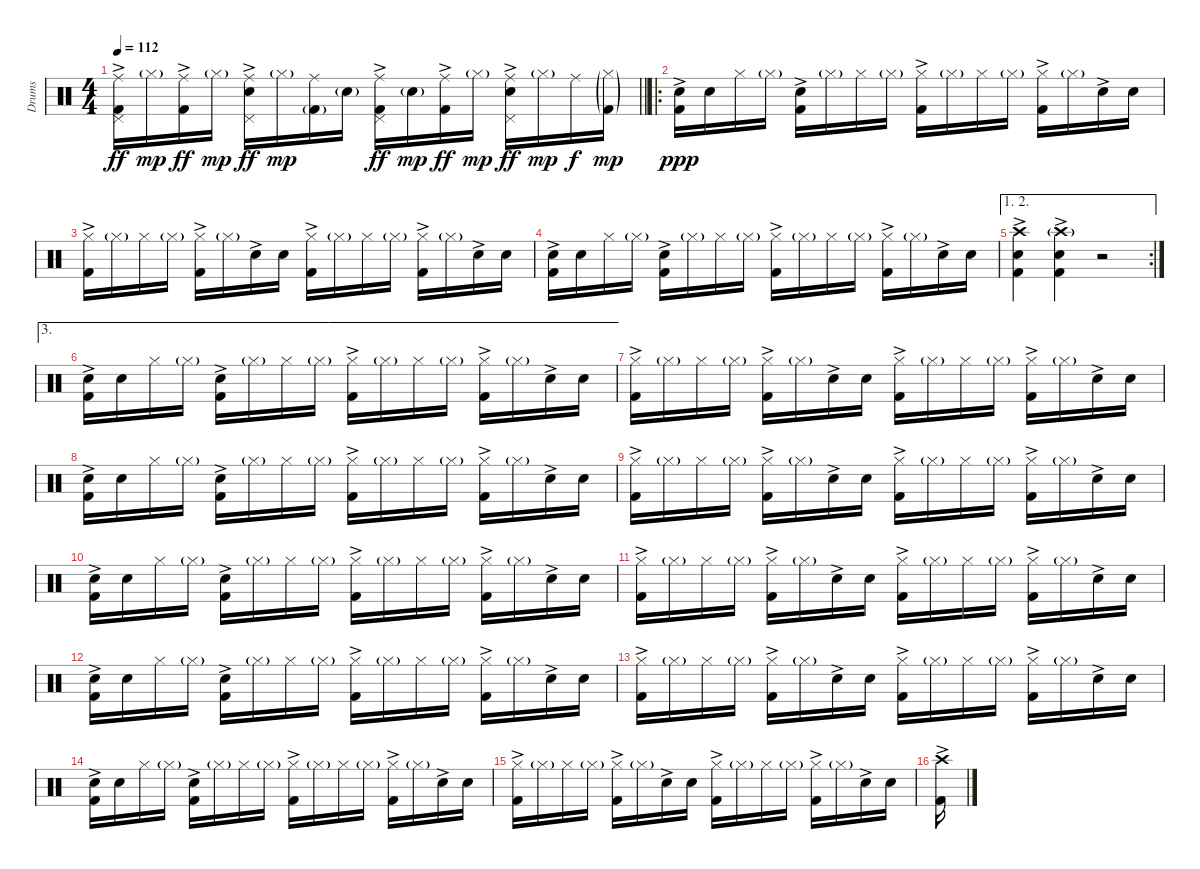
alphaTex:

\track ("Drums" "Drums") {instrument percussion}
\staff {score}
\articulation defaults
\ts (4 4)
\tempo 112
\clef neutral
\barLineRight lightlight
\ks c
("Pedal Hi-Hat (hit)" "Ride (middle)" "Kick (hit) 2"{ac}).16{dy ff} "Hi-Hat (closed)"{g}.16{dy mp} ("Ride (middle)" "Kick (hit) 2"{ac}).16{dy ff} "Hi-Hat (closed)"{g}.16{dy mp} ("Pedal Hi-Hat (hit)" "Ride (middle)" "Snare (hit) 2"{ac}).16{dy ff} "Hi-Hat (closed)"{g}.16{dy mp} ("Ride (middle)" "Kick (hit) 2"{g}).16 "Snare (hit) 2"{g}.16 ("Pedal Hi-Hat (hit)" "Ride (middle)" "Kick (hit) 2"{ac}).16{dy ff} "Snare (hit) 2"{g}.16{dy mp} ("Ride (middle)" "Kick (hit) 2"{ac}).16{dy ff} "Hi-Hat (closed)"{g}.16{dy mp} ("Pedal Hi-Hat (hit)" "Ride (middle)" "Snare (hit) 2"{ac}).16{dy ff} "Hi-Hat (closed)"{g}.16{dy mp} "Ride (middle)".16{dy f} ("Hi-Hat (closed)"{g} "Kick (hit) 2"{g}).16{dy mp} |
\ro
("Snare (hit) 2"{ac} "Kick (hit) 2"{ac}).16{dy ppp} "Snare (hit) 2".16 "Hi-Hat (closed)".16 "Hi-Hat (closed)"{g}.16 ("Snare (hit) 2"{ac} "Kick (hit) 2"{ac}).16 "Hi-Hat (closed)"{g}.16 "Hi-Hat (closed)".16 "Hi-Hat (closed)"{g}.16 ("Hi-Hat (closed)" "Kick (hit) 2"{ac}).16 "Hi-Hat (closed)"{g}.16 "Hi-Hat (closed)".16 "Hi-Hat (closed)"{g}.16 ("Hi-Hat (closed)" "Kick (hit) 2"{ac}).16 "Hi-Hat (closed)"{g}.16 "Snare (hit) 2"{ac}.16 "Snare (hit) 2".16 |
("Hi-Hat (closed)" "Kick (hit) 2"{ac}).16 "Hi-Hat (closed)"{g}.16 "Hi-Hat (closed)".16 "Hi-Hat (closed)"{g}.16 ("Hi-Hat (closed)" "Kick (hit) 2"{ac}).16 "Hi-Hat (closed)"{g}.16 "Snare (hit) 2"{ac}.16 "Snare (hit) 2".16 ("Hi-Hat (closed)" "Kick (hit) 2"{ac}).16 "Hi-Hat (closed)"{g}.16 "Hi-Hat (closed)".16 "Hi-Hat (closed)"{g}.16 ("Hi-Hat (closed)" "Kick (hit) 2"{ac}).16 "Hi-Hat (closed)"{g}.16 "Snare (hit) 2"{ac}.16 "Snare (hit) 2".16 |
("Snare (hit) 2"{ac} "Kick (hit) 2"{ac}).16 "Snare (hit) 2".16 "Hi-Hat (closed)".16 "Hi-Hat (closed)"{g}.16 ("Snare (hit) 2"{ac} "Kick (hit) 2"{ac}).16 "Hi-Hat (closed)"{g}.16 "Hi-Hat (closed)".16 "Hi-Hat (closed)"{g}.16 ("Hi-Hat (closed)" "Kick (hit) 2"{ac}).16 "Hi-Hat (closed)"{g}.16 "Hi-Hat (closed)".16 "Hi-Hat (closed)"{g}.16 ("Hi-Hat (closed)" "Kick (hit) 2"{ac}).16 "Hi-Hat (closed)"{g}.16 "Snare (hit) 2"{ac}.16 "Snare (hit) 2".16 |
\ae (1 2)
\rc 2
("Crash high (hit)" "Snare (hit) 2"{ac} "Kick (hit) 2"{ac}).4 ("Crash high (hit)"{g} "Snare (hit) 2"{ac} "Kick (hit) 2"{ac}).4 r.2 |
\ae 3
("Snare (hit) 2"{ac} "Kick (hit) 2"{ac}).16 "Snare (hit) 2".16 "Hi-Hat (closed)".16 "Hi-Hat (closed)"{g}.16 ("Snare (hit) 2"{ac} "Kick (hit) 2"{ac}).16 "Hi-Hat (closed)"{g}.16 "Hi-Hat (closed)".16 "Hi-Hat (closed)"{g}.16 ("Hi-Hat (closed)" "Kick (hit) 2"{ac}).16 "Hi-Hat (closed)"{g}.16 "Hi-Hat (closed)".16 "Hi-Hat (closed)"{g}.16 ("Hi-Hat (closed)" "Kick (hit) 2"{ac}).16 "Hi-Hat (closed)"{g}.16 "Snare (hit) 2"{ac}.16 "Snare (hit) 2".16 |
("Hi-Hat (closed)" "Kick (hit) 2"{ac}).16 "Hi-Hat (closed)"{g}.16 "Hi-Hat (closed)".16 "Hi-Hat (closed)"{g}.16 ("Hi-Hat (closed)" "Kick (hit) 2"{ac}).16 "Hi-Hat (closed)"{g}.16 "Snare (hit) 2"{ac}.16 "Snare (hit) 2".16 ("Hi-Hat (closed)" "Kick (hit) 2"{ac}).16 "Hi-Hat (closed)"{g}.16 "Hi-Hat (closed)".16 "Hi-Hat (closed)"{g}.16 ("Hi-Hat (closed)" "Kick (hit) 2"{ac}).16 "Hi-Hat (closed)"{g}.16 "Snare (hit) 2"{ac}.16 "Snare (hit) 2".16 |
("Snare (hit) 2"{ac} "Kick (hit) 2"{ac}).16 "Snare (hit) 2".16 "Hi-Hat (closed)".16 "Hi-Hat (closed)"{g}.16 ("Snare (hit) 2"{ac} "Kick (hit) 2"{ac}).16 "Hi-Hat (closed)"{g}.16 "Hi-Hat (closed)".16 "Hi-Hat (closed)"{g}.16 ("Hi-Hat (closed)" "Kick (hit) 2"{ac}).16 "Hi-Hat (closed)"{g}.16 "Hi-Hat (closed)".16 "Hi-Hat (closed)"{g}.16 ("Hi-Hat (closed)" "Kick (hit) 2"{ac}).16 "Hi-Hat (closed)"{g}.16 "Snare (hit) 2"{ac}.16 "Snare (hit) 2".16 |
("Hi-Hat (closed)" "Kick (hit) 2"{ac}).16 "Hi-Hat (closed)"{g}.16 "Hi-Hat (closed)".16 "Hi-Hat (closed)"{g}.16 ("Hi-Hat (closed)" "Kick (hit) 2"{ac}).16 "Hi-Hat (closed)"{g}.16 "Snare (hit) 2"{ac}.16 "Snare (hit) 2".16 ("Hi-Hat (closed)" "Kick (hit) 2"{ac}).16 "Hi-Hat (closed)"{g}.16 "Hi-Hat (closed)".16 "Hi-Hat (closed)"{g}.16 ("Hi-Hat (closed)" "Kick (hit) 2"{ac}).16 "Hi-Hat (closed)"{g}.16 "Snare (hit) 2"{ac}.16 "Snare (hit) 2".16 |
("Snare (hit) 2"{ac} "Kick (hit) 2"{ac}).16 "Snare (hit) 2".16 "Hi-Hat (closed)".16 "Hi-Hat (closed)"{g}.16 ("Snare (hit) 2"{ac} "Kick (hit) 2"{ac}).16 "Hi-Hat (closed)"{g}.16 "Hi-Hat (closed)".16 "Hi-Hat (closed)"{g}.16 ("Hi-Hat (closed)" "Kick (hit) 2"{ac}).16 "Hi-Hat (closed)"{g}.16 "Hi-Hat (closed)".16 "Hi-Hat (closed)"{g}.16 ("Hi-Hat (closed)" "Kick (hit) 2"{ac}).16 "Hi-Hat (closed)"{g}.16 "Snare (hit) 2"{ac}.16 "Snare (hit) 2".16 |
("Hi-Hat (closed)" "Kick (hit) 2"{ac}).16 "Hi-Hat (closed)"{g}.16 "Hi-Hat (closed)".16 "Hi-Hat (closed)"{g}.16 ("Hi-Hat (closed)" "Kick (hit) 2"{ac}).16 "Hi-Hat (closed)"{g}.16 "Snare (hit) 2"{ac}.16 "Snare (hit) 2".16 ("Hi-Hat (closed)" "Kick (hit) 2"{ac}).16 "Hi-Hat (closed)"{g}.16 "Hi-Hat (closed)".16 "Hi-Hat (closed)"{g}.16 ("Hi-Hat (closed)" "Kick (hit) 2"{ac}).16 "Hi-Hat (closed)"{g}.16 "Snare (hit) 2"{ac}.16 "Snare (hit) 2".16 |
("Snare (hit) 2"{ac} "Kick (hit) 2"{ac}).16 "Snare (hit) 2".16 "Hi-Hat (closed)".16 "Hi-Hat (closed)"{g}.16 ("Snare (hit) 2"{ac} "Kick (hit) 2"{ac}).16 "Hi-Hat (closed)"{g}.16 "Hi-Hat (closed)".16 "Hi-Hat (closed)"{g}.16 ("Hi-Hat (closed)" "Kick (hit) 2"{ac}).16 "Hi-Hat (closed)"{g}.16 "Hi-Hat (closed)".16 "Hi-Hat (closed)"{g}.16 ("Hi-Hat (closed)" "Kick (hit) 2"{ac}).16 "Hi-Hat (closed)"{g}.16 "Snare (hit) 2"{ac}.16 "Snare (hit) 2".16 |
("Hi-Hat (closed)" "Kick (hit) 2"{ac}).16 "Hi-Hat (closed)"{g}.16 "Hi-Hat (closed)".16 "Hi-Hat (closed)"{g}.16 ("Hi-Hat (closed)" "Kick (hit) 2"{ac}).16 "Hi-Hat (closed)"{g}.16 "Snare (hit) 2"{ac}.16 "Snare (hit) 2".16 ("Hi-Hat (closed)" "Kick (hit) 2"{ac}).16 "Hi-Hat (closed)"{g}.16 "Hi-Hat (closed)".16 "Hi-Hat (closed)"{g}.16 ("Hi-Hat (closed)" "Kick (hit) 2"{ac}).16 "Hi-Hat (closed)"{g}.16 "Snare (hit) 2"{ac}.16 "Snare (hit) 2".16 |
("Snare (hit) 2"{ac} "Kick (hit) 2"{ac}).16 "Snare (hit) 2".16 "Hi-Hat (closed)".16 "Hi-Hat (closed)"{g}.16 ("Snare (hit) 2"{ac} "Kick (hit) 2"{ac}).16 "Hi-Hat (closed)"{g}.16 "Hi-Hat (closed)".16 "Hi-Hat (closed)"{g}.16 ("Hi-Hat (closed)" "Kick (hit) 2"{ac}).16 "Hi-Hat (closed)"{g}.16 "Hi-Hat (closed)".16 "Hi-Hat (closed)"{g}.16 ("Hi-Hat (closed)" "Kick (hit) 2"{ac}).16 "Hi-Hat (closed)"{g}.16 "Snare (hit) 2"{ac}.16 "Snare (hit) 2".16 |
("Hi-Hat (closed)" "Kick (hit) 2"{ac}).16 "Hi-Hat (closed)"{g}.16 "Hi-Hat (closed)".16 "Hi-Hat (closed)"{g}.16 ("Hi-Hat (closed)" "Kick (hit) 2"{ac}).16 "Hi-Hat (closed)"{g}.16 "Snare (hit) 2"{ac}.16 "Snare (hit) 2".16 ("Hi-Hat (closed)" "Kick (hit) 2"{ac}).16 "Hi-Hat (closed)"{g}.16 "Hi-Hat (closed)".16 "Hi-Hat (closed)"{g}.16 ("Hi-Hat (closed)" "Kick (hit) 2"{ac}).16 "Hi-Hat (closed)"{g}.16 "Snare (hit) 2"{ac}.16 "Snare (hit) 2".16 |
("Crash high (hit)" "Kick (hit) 2"{ac}).16
